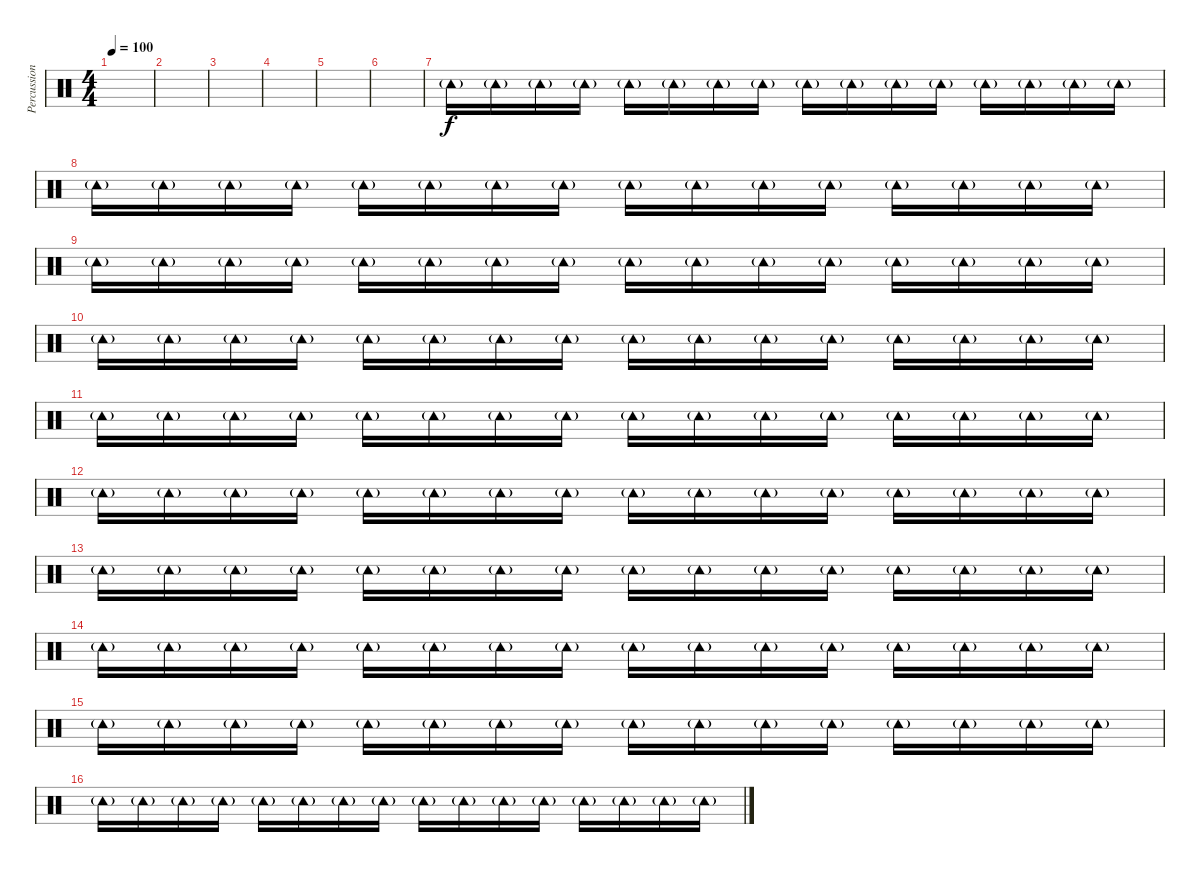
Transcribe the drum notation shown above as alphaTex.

\track ("Percussion" "Percussion") {instrument percussion}
\staff {score}
\articulation defaults
\ts (4 4)
\tempo 100
\clef neutral
\ks c
|
|
|
|
|
|
"Tambourine (hit)"{g}.16 "Tambourine (hit)"{g}.16 "Tambourine (hit)"{g}.16 "Tambourine (hit)"{g}.16 "Tambourine (hit)"{g}.16 "Tambourine (hit)"{g}.16 "Tambourine (hit)"{g}.16 "Tambourine (hit)"{g}.16 "Tambourine (hit)"{g}.16 "Tambourine (hit)"{g}.16 "Tambourine (hit)"{g}.16 "Tambourine (hit)"{g}.16 "Tambourine (hit)"{g}.16 "Tambourine (hit)"{g}.16 "Tambourine (hit)"{g}.16 "Tambourine (hit)"{g}.16 |
"Tambourine (hit)"{g}.16 "Tambourine (hit)"{g}.16 "Tambourine (hit)"{g}.16 "Tambourine (hit)"{g}.16 "Tambourine (hit)"{g}.16 "Tambourine (hit)"{g}.16 "Tambourine (hit)"{g}.16 "Tambourine (hit)"{g}.16 "Tambourine (hit)"{g}.16 "Tambourine (hit)"{g}.16 "Tambourine (hit)"{g}.16 "Tambourine (hit)"{g}.16 "Tambourine (hit)"{g}.16 "Tambourine (hit)"{g}.16 "Tambourine (hit)"{g}.16 "Tambourine (hit)"{g}.16 |
"Tambourine (hit)"{g}.16 "Tambourine (hit)"{g}.16 "Tambourine (hit)"{g}.16 "Tambourine (hit)"{g}.16 "Tambourine (hit)"{g}.16 "Tambourine (hit)"{g}.16 "Tambourine (hit)"{g}.16 "Tambourine (hit)"{g}.16 "Tambourine (hit)"{g}.16 "Tambourine (hit)"{g}.16 "Tambourine (hit)"{g}.16 "Tambourine (hit)"{g}.16 "Tambourine (hit)"{g}.16 "Tambourine (hit)"{g}.16 "Tambourine (hit)"{g}.16 "Tambourine (hit)"{g}.16 |
"Tambourine (hit)"{g}.16 "Tambourine (hit)"{g}.16 "Tambourine (hit)"{g}.16 "Tambourine (hit)"{g}.16 "Tambourine (hit)"{g}.16 "Tambourine (hit)"{g}.16 "Tambourine (hit)"{g}.16 "Tambourine (hit)"{g}.16 "Tambourine (hit)"{g}.16 "Tambourine (hit)"{g}.16 "Tambourine (hit)"{g}.16 "Tambourine (hit)"{g}.16 "Tambourine (hit)"{g}.16 "Tambourine (hit)"{g}.16 "Tambourine (hit)"{g}.16 "Tambourine (hit)"{g}.16 |
"Tambourine (hit)"{g}.16 "Tambourine (hit)"{g}.16 "Tambourine (hit)"{g}.16 "Tambourine (hit)"{g}.16 "Tambourine (hit)"{g}.16 "Tambourine (hit)"{g}.16 "Tambourine (hit)"{g}.16 "Tambourine (hit)"{g}.16 "Tambourine (hit)"{g}.16 "Tambourine (hit)"{g}.16 "Tambourine (hit)"{g}.16 "Tambourine (hit)"{g}.16 "Tambourine (hit)"{g}.16 "Tambourine (hit)"{g}.16 "Tambourine (hit)"{g}.16 "Tambourine (hit)"{g}.16 |
"Tambourine (hit)"{g}.16 "Tambourine (hit)"{g}.16 "Tambourine (hit)"{g}.16 "Tambourine (hit)"{g}.16 "Tambourine (hit)"{g}.16 "Tambourine (hit)"{g}.16 "Tambourine (hit)"{g}.16 "Tambourine (hit)"{g}.16 "Tambourine (hit)"{g}.16 "Tambourine (hit)"{g}.16 "Tambourine (hit)"{g}.16 "Tambourine (hit)"{g}.16 "Tambourine (hit)"{g}.16 "Tambourine (hit)"{g}.16 "Tambourine (hit)"{g}.16 "Tambourine (hit)"{g}.16 |
"Tambourine (hit)"{g}.16 "Tambourine (hit)"{g}.16 "Tambourine (hit)"{g}.16 "Tambourine (hit)"{g}.16 "Tambourine (hit)"{g}.16 "Tambourine (hit)"{g}.16 "Tambourine (hit)"{g}.16 "Tambourine (hit)"{g}.16 "Tambourine (hit)"{g}.16 "Tambourine (hit)"{g}.16 "Tambourine (hit)"{g}.16 "Tambourine (hit)"{g}.16 "Tambourine (hit)"{g}.16 "Tambourine (hit)"{g}.16 "Tambourine (hit)"{g}.16 "Tambourine (hit)"{g}.16 |
"Tambourine (hit)"{g}.16 "Tambourine (hit)"{g}.16 "Tambourine (hit)"{g}.16 "Tambourine (hit)"{g}.16 "Tambourine (hit)"{g}.16 "Tambourine (hit)"{g}.16 "Tambourine (hit)"{g}.16 "Tambourine (hit)"{g}.16 "Tambourine (hit)"{g}.16 "Tambourine (hit)"{g}.16 "Tambourine (hit)"{g}.16 "Tambourine (hit)"{g}.16 "Tambourine (hit)"{g}.16 "Tambourine (hit)"{g}.16 "Tambourine (hit)"{g}.16 "Tambourine (hit)"{g}.16 |
"Tambourine (hit)"{g}.16 "Tambourine (hit)"{g}.16 "Tambourine (hit)"{g}.16 "Tambourine (hit)"{g}.16 "Tambourine (hit)"{g}.16 "Tambourine (hit)"{g}.16 "Tambourine (hit)"{g}.16 "Tambourine (hit)"{g}.16 "Tambourine (hit)"{g}.16 "Tambourine (hit)"{g}.16 "Tambourine (hit)"{g}.16 "Tambourine (hit)"{g}.16 "Tambourine (hit)"{g}.16 "Tambourine (hit)"{g}.16 "Tambourine (hit)"{g}.16 "Tambourine (hit)"{g}.16 |
"Tambourine (hit)"{g}.16 "Tambourine (hit)"{g}.16 "Tambourine (hit)"{g}.16 "Tambourine (hit)"{g}.16 "Tambourine (hit)"{g}.16 "Tambourine (hit)"{g}.16 "Tambourine (hit)"{g}.16 "Tambourine (hit)"{g}.16 "Tambourine (hit)"{g}.16 "Tambourine (hit)"{g}.16 "Tambourine (hit)"{g}.16 "Tambourine (hit)"{g}.16 "Tambourine (hit)"{g}.16 "Tambourine (hit)"{g}.16 "Tambourine (hit)"{g}.16 "Tambourine (hit)"{g}.16
